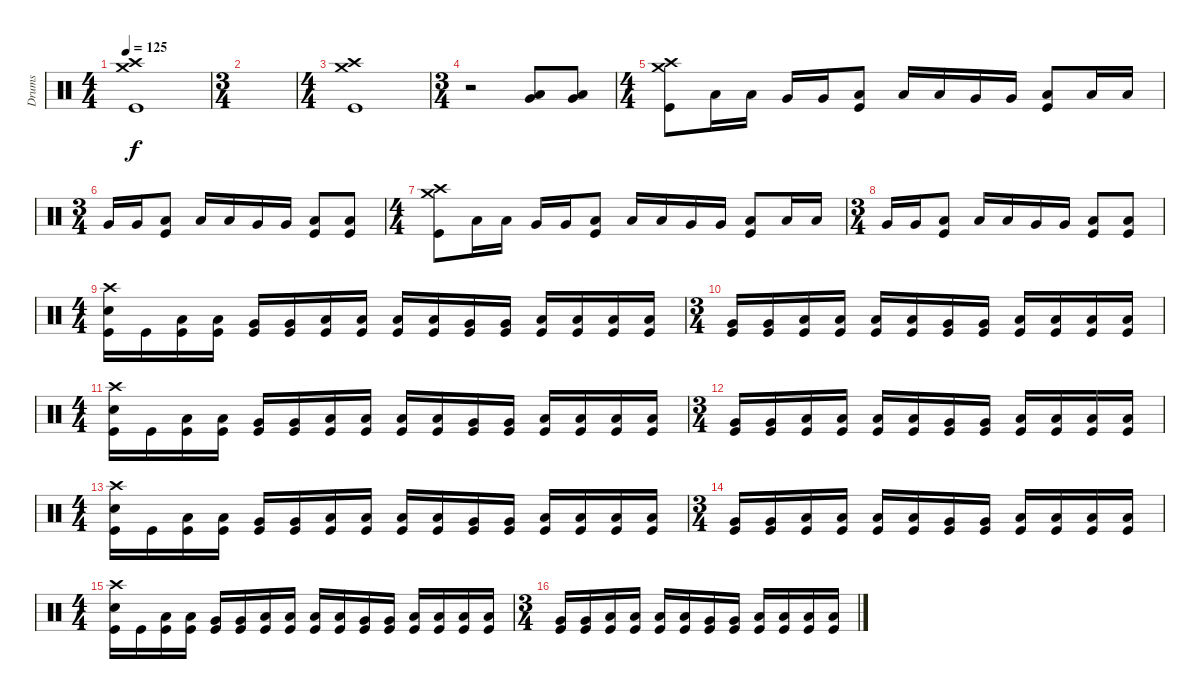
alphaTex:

\track ("Drums" "Drums") {instrument percussion}
\staff {score}
\articulation defaults
\ts (4 4)
\tempo 125
\clef neutral
\ks c
("Crash medium (hit)" "Crash high (hit)" "Kick (hit)").1{dy f} |
\ts (3 4)
|
\ts (4 4)
("Crash medium (hit)" "Crash high (hit)" "Kick (hit)").1 |
\ts (3 4)
r.2 ("Low Tom (hit)" "Very Low Tom (hit)").8 ("Low Tom (hit)" "Very Low Tom (hit)").8 |
\ts (4 4)
("Crash medium (hit)" "Crash high (hit)" "Kick (hit)").8 "Low Tom (hit)".16 "Low Tom (hit)".16 "Very Low Tom (hit)".16 "Very Low Tom (hit)".16 ("Low Floor Tom (hit)" "Kick (hit)").8 "Low Tom (hit)".16 "Low Tom (hit)".16 "Very Low Tom (hit)".16 "Very Low Tom (hit)".16 ("Low Floor Tom (hit)" "Kick (hit)").8 "Low Tom (hit)".16 "Low Tom (hit)".16 |
\ts (3 4)
"Very Low Tom (hit)".16 "Very Low Tom (hit)".16 ("Low Floor Tom (hit)" "Kick (hit)").8 "Low Tom (hit)".16 "Low Tom (hit)".16 "Very Low Tom (hit)".16 "Very Low Tom (hit)".16 ("Low Floor Tom (hit)" "Kick (hit)").8 ("Low Floor Tom (hit)" "Kick (hit)").8 |
\ts (4 4)
("Crash medium (hit)" "Crash high (hit)" "Kick (hit)").8 "Low Tom (hit)".16 "Low Tom (hit)".16 "Very Low Tom (hit)".16 "Very Low Tom (hit)".16 ("Low Floor Tom (hit)" "Kick (hit)").8 "Low Tom (hit)".16 "Low Tom (hit)".16 "Very Low Tom (hit)".16 "Very Low Tom (hit)".16 ("Low Floor Tom (hit)" "Kick (hit)").8 "Low Tom (hit)".16 "Low Tom (hit)".16 |
\ts (3 4)
"Very Low Tom (hit)".16 "Very Low Tom (hit)".16 ("Low Floor Tom (hit)" "Kick (hit)").8 "Low Tom (hit)".16 "Low Tom (hit)".16 "Very Low Tom (hit)".16 "Very Low Tom (hit)".16 ("Low Floor Tom (hit)" "Kick (hit)").8 ("Low Floor Tom (hit)" "Kick (hit)").8 |
\ts (4 4)
("Crash high (hit)" "Electric Snare (hit)" "Kick (hit)").16 "Kick (hit)".16 ("Low Tom (hit)" "Kick (hit)").16 ("Low Tom (hit)" "Kick (hit)").16 ("Very Low Tom (hit)" "Kick (hit)").16 ("Very Low Tom (hit)" "Kick (hit)").16 ("Low Floor Tom (hit)" "Kick (hit)").16 ("Low Floor Tom (hit)" "Kick (hit)").16 ("Low Tom (hit)" "Kick (hit)").16 ("Low Tom (hit)" "Kick (hit)").16 ("Very Low Tom (hit)" "Kick (hit)").16 ("Very Low Tom (hit)" "Kick (hit)").16 ("Low Floor Tom (hit)" "Kick (hit)").16 ("Low Floor Tom (hit)" "Kick (hit)").16 ("Low Tom (hit)" "Kick (hit)").16 ("Low Tom (hit)" "Kick (hit)").16 |
\ts (3 4)
("Very Low Tom (hit)" "Kick (hit)").16 ("Very Low Tom (hit)" "Kick (hit)").16 ("Low Floor Tom (hit)" "Kick (hit)").16 ("Low Floor Tom (hit)" "Kick (hit)").16 ("Low Tom (hit)" "Kick (hit)").16 ("Low Tom (hit)" "Kick (hit)").16 ("Very Low Tom (hit)" "Kick (hit)").16 ("Very Low Tom (hit)" "Kick (hit)").16 ("Low Floor Tom (hit)" "Kick (hit)").16 ("Low Floor Tom (hit)" "Kick (hit)").16 ("Low Floor Tom (hit)" "Kick (hit)").16 ("Low Floor Tom (hit)" "Kick (hit)").16 |
\ts (4 4)
("Crash high (hit)" "Electric Snare (hit)" "Kick (hit)").16 "Kick (hit)".16 ("Low Tom (hit)" "Kick (hit)").16 ("Low Tom (hit)" "Kick (hit)").16 ("Very Low Tom (hit)" "Kick (hit)").16 ("Very Low Tom (hit)" "Kick (hit)").16 ("Low Floor Tom (hit)" "Kick (hit)").16 ("Low Floor Tom (hit)" "Kick (hit)").16 ("Low Tom (hit)" "Kick (hit)").16 ("Low Tom (hit)" "Kick (hit)").16 ("Very Low Tom (hit)" "Kick (hit)").16 ("Very Low Tom (hit)" "Kick (hit)").16 ("Low Floor Tom (hit)" "Kick (hit)").16 ("Low Floor Tom (hit)" "Kick (hit)").16 ("Low Tom (hit)" "Kick (hit)").16 ("Low Tom (hit)" "Kick (hit)").16 |
\ts (3 4)
("Very Low Tom (hit)" "Kick (hit)").16 ("Very Low Tom (hit)" "Kick (hit)").16 ("Low Floor Tom (hit)" "Kick (hit)").16 ("Low Floor Tom (hit)" "Kick (hit)").16 ("Low Tom (hit)" "Kick (hit)").16 ("Low Tom (hit)" "Kick (hit)").16 ("Very Low Tom (hit)" "Kick (hit)").16 ("Very Low Tom (hit)" "Kick (hit)").16 ("Low Floor Tom (hit)" "Kick (hit)").16 ("Low Floor Tom (hit)" "Kick (hit)").16 ("Low Floor Tom (hit)" "Kick (hit)").16 ("Low Floor Tom (hit)" "Kick (hit)").16 |
\ts (4 4)
("Crash high (hit)" "Electric Snare (hit)" "Kick (hit)").16 "Kick (hit)".16 ("Low Tom (hit)" "Kick (hit)").16 ("Low Tom (hit)" "Kick (hit)").16 ("Very Low Tom (hit)" "Kick (hit)").16 ("Very Low Tom (hit)" "Kick (hit)").16 ("Low Floor Tom (hit)" "Kick (hit)").16 ("Low Floor Tom (hit)" "Kick (hit)").16 ("Low Tom (hit)" "Kick (hit)").16 ("Low Tom (hit)" "Kick (hit)").16 ("Very Low Tom (hit)" "Kick (hit)").16 ("Very Low Tom (hit)" "Kick (hit)").16 ("Low Floor Tom (hit)" "Kick (hit)").16 ("Low Floor Tom (hit)" "Kick (hit)").16 ("Low Tom (hit)" "Kick (hit)").16 ("Low Tom (hit)" "Kick (hit)").16 |
\ts (3 4)
("Very Low Tom (hit)" "Kick (hit)").16 ("Very Low Tom (hit)" "Kick (hit)").16 ("Low Floor Tom (hit)" "Kick (hit)").16 ("Low Floor Tom (hit)" "Kick (hit)").16 ("Low Tom (hit)" "Kick (hit)").16 ("Low Tom (hit)" "Kick (hit)").16 ("Very Low Tom (hit)" "Kick (hit)").16 ("Very Low Tom (hit)" "Kick (hit)").16 ("Low Floor Tom (hit)" "Kick (hit)").16 ("Low Floor Tom (hit)" "Kick (hit)").16 ("Low Floor Tom (hit)" "Kick (hit)").16 ("Low Floor Tom (hit)" "Kick (hit)").16 |
\ts (4 4)
("Crash high (hit)" "Electric Snare (hit)" "Kick (hit)").16 "Kick (hit)".16 ("Low Tom (hit)" "Kick (hit)").16 ("Low Tom (hit)" "Kick (hit)").16 ("Very Low Tom (hit)" "Kick (hit)").16 ("Very Low Tom (hit)" "Kick (hit)").16 ("Low Floor Tom (hit)" "Kick (hit)").16 ("Low Floor Tom (hit)" "Kick (hit)").16 ("Low Tom (hit)" "Kick (hit)").16 ("Low Tom (hit)" "Kick (hit)").16 ("Very Low Tom (hit)" "Kick (hit)").16 ("Very Low Tom (hit)" "Kick (hit)").16 ("Low Floor Tom (hit)" "Kick (hit)").16 ("Low Floor Tom (hit)" "Kick (hit)").16 ("Low Tom (hit)" "Kick (hit)").16 ("Low Tom (hit)" "Kick (hit)").16 |
\ts (3 4)
("Very Low Tom (hit)" "Kick (hit)").16 ("Very Low Tom (hit)" "Kick (hit)").16 ("Low Floor Tom (hit)" "Kick (hit)").16 ("Low Floor Tom (hit)" "Kick (hit)").16 ("Low Tom (hit)" "Kick (hit)").16 ("Low Tom (hit)" "Kick (hit)").16 ("Very Low Tom (hit)" "Kick (hit)").16 ("Very Low Tom (hit)" "Kick (hit)").16 ("Low Floor Tom (hit)" "Kick (hit)").16 ("Low Floor Tom (hit)" "Kick (hit)").16 ("Low Floor Tom (hit)" "Kick (hit)").16 ("Low Floor Tom (hit)" "Kick (hit)").16
